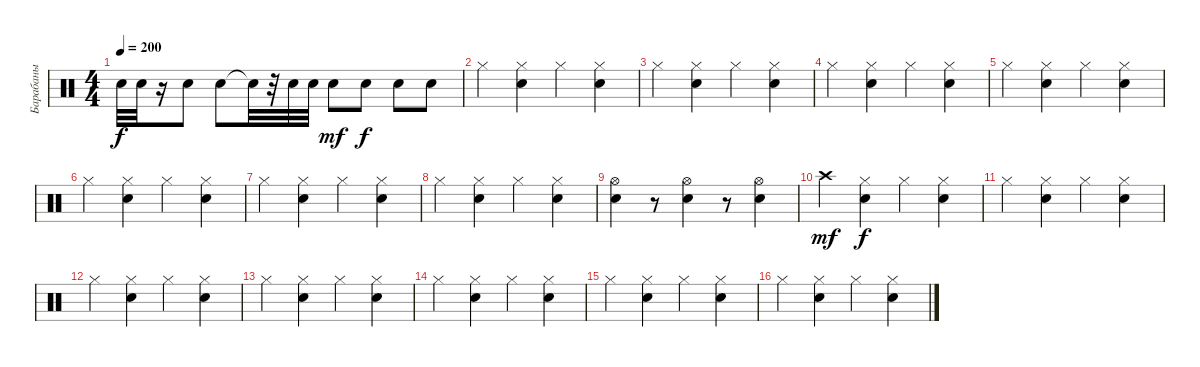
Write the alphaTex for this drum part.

\track ("Барабаны" "Барабаны") {instrument percussion}
\staff {score}
\articulation defaults
\ts (4 4)
\tempo 200
\clef neutral
\ks c "Electric Snare (hit)".32{dy f} "Electric Snare (hit)".32
r.16 "Electric Snare (hit)".8 "Electric Snare (hit)".8 "Snare (hit)"{t}.32 r.32 "Electric Snare (hit)".32 "Electric Snare (hit)".32 "Electric Snare (hit)".8{dy mf} "Electric Snare (hit)".8{dy f} "Electric Snare (hit)".8 "Electric Snare (hit)".8 |
"Hi-Hat (closed)".4 ("Snare (hit) 2" "Hi-Hat (closed)").4 "Hi-Hat (closed)".4 ("Snare (hit) 2" "Hi-Hat (closed)").4 |
"Hi-Hat (closed)".4 ("Snare (hit) 2" "Hi-Hat (closed)").4 "Hi-Hat (closed)".4 ("Snare (hit) 2" "Hi-Hat (closed)").4 |
"Hi-Hat (closed)".4 ("Snare (hit) 2" "Hi-Hat (closed)").4 "Hi-Hat (closed)".4 ("Snare (hit) 2" "Hi-Hat (closed)").4 |
"Hi-Hat (closed)".4 ("Snare (hit) 2" "Hi-Hat (closed)").4 "Hi-Hat (closed)".4 ("Snare (hit) 2" "Hi-Hat (closed)").4 |
"Hi-Hat (closed)".4 ("Snare (hit) 2" "Hi-Hat (closed)").4 "Hi-Hat (closed)".4 ("Snare (hit) 2" "Hi-Hat (closed)").4 |
"Hi-Hat (closed)".4 ("Snare (hit) 2" "Hi-Hat (closed)").4 "Hi-Hat (closed)".4 ("Snare (hit) 2" "Hi-Hat (closed)").4 |
"Hi-Hat (closed)".4 ("Snare (hit) 2" "Hi-Hat (closed)").4 "Hi-Hat (closed)".4 ("Snare (hit) 2" "Hi-Hat (closed)").4 |
("Hi-Hat (open)" "Electric Snare (hit)").4 r.8 ("Hi-Hat (open)" "Electric Snare (hit)").4 r.8 ("Hi-Hat (open)" "Electric Snare (hit)").4 |
"Crash high (hit)".4{dy mf} ("Snare (hit) 2" "Hi-Hat (closed)").4{dy f} "Hi-Hat (closed)".4 ("Snare (hit) 2" "Hi-Hat (closed)").4 |
"Hi-Hat (closed)".4 ("Snare (hit) 2" "Hi-Hat (closed)").4 "Hi-Hat (closed)".4 ("Snare (hit) 2" "Hi-Hat (closed)").4 |
"Hi-Hat (closed)".4 ("Snare (hit) 2" "Hi-Hat (closed)").4 "Hi-Hat (closed)".4 ("Snare (hit) 2" "Hi-Hat (closed)").4 |
"Hi-Hat (closed)".4 ("Snare (hit) 2" "Hi-Hat (closed)").4 "Hi-Hat (closed)".4 ("Snare (hit) 2" "Hi-Hat (closed)").4 |
"Hi-Hat (closed)".4 ("Snare (hit) 2" "Hi-Hat (closed)").4 "Hi-Hat (closed)".4 ("Snare (hit) 2" "Hi-Hat (closed)").4 |
"Hi-Hat (closed)".4 ("Snare (hit) 2" "Hi-Hat (closed)").4 "Hi-Hat (closed)".4 ("Snare (hit) 2" "Hi-Hat (closed)").4 |
"Hi-Hat (closed)".4 ("Snare (hit) 2" "Hi-Hat (closed)").4 "Hi-Hat (closed)".4 ("Snare (hit) 2" "Hi-Hat (closed)").4
